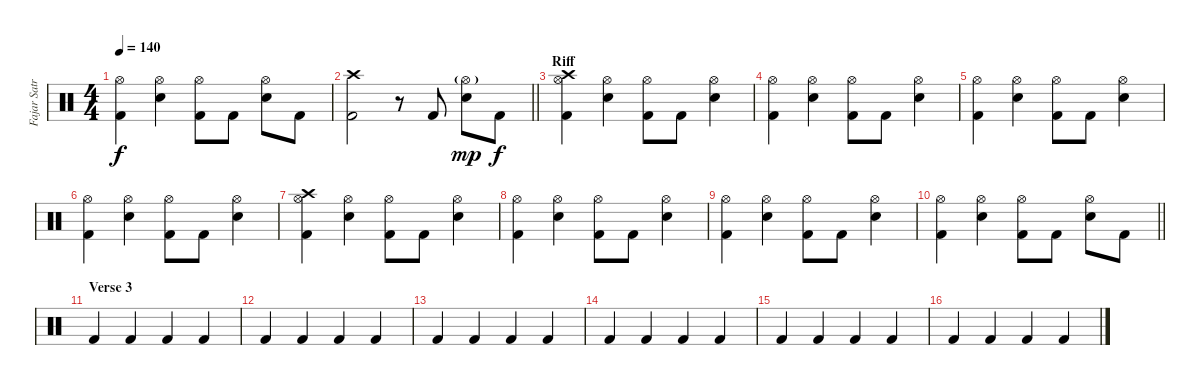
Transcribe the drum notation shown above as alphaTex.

\track ("Fajar Satriana" "Fajar Satr") {instrument percussion}
\staff {score}
\articulation defaults
\ts (4 4)
\tempo 140
\clef neutral
\ks c
("Hi-Hat (open)" "Kick (hit) 2").4{dy f} ("Hi-Hat (open)" "Electric Snare (hit)").4 ("Hi-Hat (open)" "Kick (hit) 2").8 "Kick (hit) 2".8 ("Hi-Hat (open)" "Electric Snare (hit)").8 "Kick (hit) 2".8 |
\barLineRight lightlight
("Crash high (hit)" "Kick (hit) 2").2 r.8 "Kick (hit) 2".8 ("Hi-Hat (open)"{g} "Electric Snare (hit)").8{dy mp} "Kick (hit) 2".8{dy f} |
\section ("" "Riff")
("Crash high (hit)" "Hi-Hat (open)" "Kick (hit) 2").4 ("Hi-Hat (open)" "Electric Snare (hit)").4 ("Hi-Hat (open)" "Kick (hit) 2").8 "Kick (hit) 2".8 ("Hi-Hat (open)" "Electric Snare (hit)").4 |
("Hi-Hat (open)" "Kick (hit) 2").4 ("Hi-Hat (open)" "Electric Snare (hit)").4 ("Hi-Hat (open)" "Kick (hit) 2").8 "Kick (hit) 2".8 ("Hi-Hat (open)" "Electric Snare (hit)").4 |
("Hi-Hat (open)" "Kick (hit) 2").4 ("Hi-Hat (open)" "Electric Snare (hit)").4 ("Hi-Hat (open)" "Kick (hit) 2").8 "Kick (hit) 2".8 ("Hi-Hat (open)" "Electric Snare (hit)").4 |
("Hi-Hat (open)" "Kick (hit) 2").4 ("Hi-Hat (open)" "Electric Snare (hit)").4 ("Hi-Hat (open)" "Kick (hit) 2").8 "Kick (hit) 2".8 ("Hi-Hat (open)" "Electric Snare (hit)").4 |
("Crash high (hit)" "Hi-Hat (open)" "Kick (hit) 2").4 ("Hi-Hat (open)" "Electric Snare (hit)").4 ("Hi-Hat (open)" "Kick (hit) 2").8 "Kick (hit) 2".8 ("Hi-Hat (open)" "Electric Snare (hit)").4 |
("Hi-Hat (open)" "Kick (hit) 2").4 ("Hi-Hat (open)" "Electric Snare (hit)").4 ("Hi-Hat (open)" "Kick (hit) 2").8 "Kick (hit) 2".8 ("Hi-Hat (open)" "Electric Snare (hit)").4 |
("Hi-Hat (open)" "Kick (hit) 2").4 ("Hi-Hat (open)" "Electric Snare (hit)").4 ("Hi-Hat (open)" "Kick (hit) 2").8 "Kick (hit) 2".8 ("Hi-Hat (open)" "Electric Snare (hit)").4 |
\barLineRight lightlight
("Hi-Hat (open)" "Kick (hit) 2").4 ("Hi-Hat (open)" "Electric Snare (hit)").4 ("Hi-Hat (open)" "Kick (hit) 2").8 "Kick (hit) 2".8 ("Hi-Hat (open)" "Electric Snare (hit)").8 "Kick (hit) 2".8 |
\section ("" "Verse 3")
"Kick (hit) 2".4 "Kick (hit) 2".4 "Kick (hit) 2".4 "Kick (hit) 2".4 |
"Kick (hit) 2".4 "Kick (hit) 2".4 "Kick (hit) 2".4 "Kick (hit) 2".4 |
"Kick (hit) 2".4 "Kick (hit) 2".4 "Kick (hit) 2".4 "Kick (hit) 2".4 |
"Kick (hit) 2".4 "Kick (hit) 2".4 "Kick (hit) 2".4 "Kick (hit) 2".4 |
"Kick (hit) 2".4 "Kick (hit) 2".4 "Kick (hit) 2".4 "Kick (hit) 2".4 |
"Kick (hit) 2".4 "Kick (hit) 2".4 "Kick (hit) 2".4 "Kick (hit) 2".4
